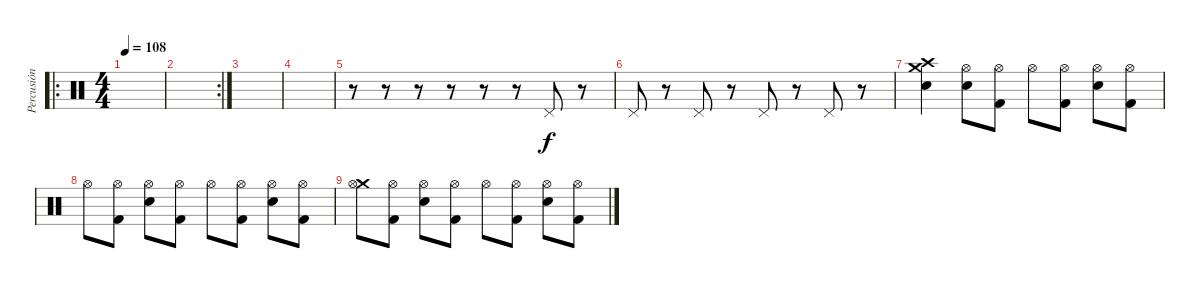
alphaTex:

\track ("Percusión" "Percusión") {instrument percussion}
\staff {score}
\articulation defaults
\ro
\ts (4 4)
\tempo 108
\clef neutral
\ks c
|
\rc 2
|
|
|
r.8 r.8 r.8 r.8 r.8 r.8 "Pedal Hi-Hat (hit)".8 r.8 |
"Pedal Hi-Hat (hit)".8 r.8 "Pedal Hi-Hat (hit)".8 r.8 "Pedal Hi-Hat (hit)".8 r.8 "Pedal Hi-Hat (hit)".8 r.8 |
("Crash high (hit)" "Crash medium (hit)" "Snare (hit) 2").4 ("Hi-Hat (open)" "Snare (hit) 2").8 ("Hi-Hat (open)" "Kick (hit) 2").8 "Hi-Hat (open)".8 ("Hi-Hat (open)" "Kick (hit) 2").8 ("Hi-Hat (open)" "Snare (hit) 2").8 ("Hi-Hat (open)" "Kick (hit) 2").8 |
"Hi-Hat (open)".8 ("Hi-Hat (open)" "Kick (hit) 2").8 ("Hi-Hat (open)" "Snare (hit) 2").8 ("Hi-Hat (open)" "Kick (hit) 2").8 "Hi-Hat (open)".8 ("Hi-Hat (open)" "Kick (hit) 2").8 ("Hi-Hat (open)" "Snare (hit) 2").8 ("Hi-Hat (open)" "Kick (hit) 2").8 |
("Crash medium (hit)" "Hi-Hat (open)").8 ("Hi-Hat (open)" "Kick (hit) 2").8 ("Hi-Hat (open)" "Snare (hit) 2").8 ("Hi-Hat (open)" "Kick (hit) 2").8 "Hi-Hat (open)".8 ("Hi-Hat (open)" "Kick (hit) 2").8 ("Hi-Hat (open)" "Snare (hit) 2").8 ("Hi-Hat (open)" "Kick (hit) 2").8
